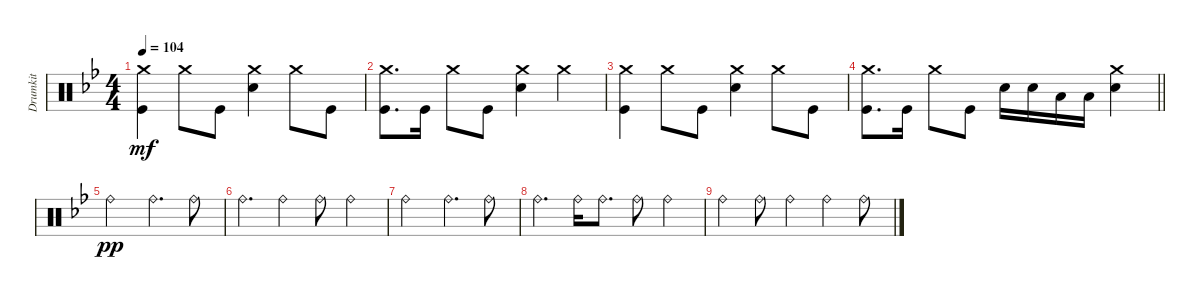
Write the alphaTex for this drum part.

\track ("Drumkit" "Drumkit") {instrument percussion}
\staff {score}
\articulation defaults
\ts (4 4)
\tempo 104
\clef neutral
\ks bb
("Crash medium (hit)" "Kick (hit)").4{dy mf} "Crash medium (hit)".8 "Kick (hit)".8 ("Snare (hit) 2" "Crash medium (hit)").4 "Crash medium (hit)".8 "Kick (hit)".8 |
("Crash medium (hit)" "Kick (hit)").8{d} "Kick (hit)".16 "Crash medium (hit)".8 "Kick (hit)".8 ("Crash medium (hit)" "Snare (hit) 2").4 "Crash medium (hit)".4 |
("Crash medium (hit)" "Kick (hit)").4 "Crash medium (hit)".8 "Kick (hit)".8 ("Snare (hit) 2" "Crash medium (hit)").4 "Crash medium (hit)".8 "Kick (hit)".8 |
\barLineRight lightlight
("Crash medium (hit)" "Kick (hit)").8{d} "Kick (hit)".16 "Crash medium (hit)".8 "Kick (hit)".8 "Snare (hit) 2".16 "Snare (hit) 2".16 "Low Tom (hit)".16 "Low Tom (hit)".16 ("Snare (hit) 2" "Crash medium (hit)").4 |
"Ride (bell)".2{dy pp} "Ride (bell)".4{d} "Ride (bell)".8 |
"Ride (bell)".4{d} "Ride (bell)".4 "Ride (bell)".8 "Ride (bell)".4 |
"Ride (bell)".2 "Ride (bell)".4{d} "Ride (bell)".8 |
"Ride (bell)".4{d} "Ride (bell)".16 "Ride (bell)".8{d} "Ride (bell)".8 "Ride (bell)".4 |
"Ride (bell)".4 "Ride (bell)".8 "Ride (bell)".4 "Ride (bell)".4 "Ride (bell)".8
